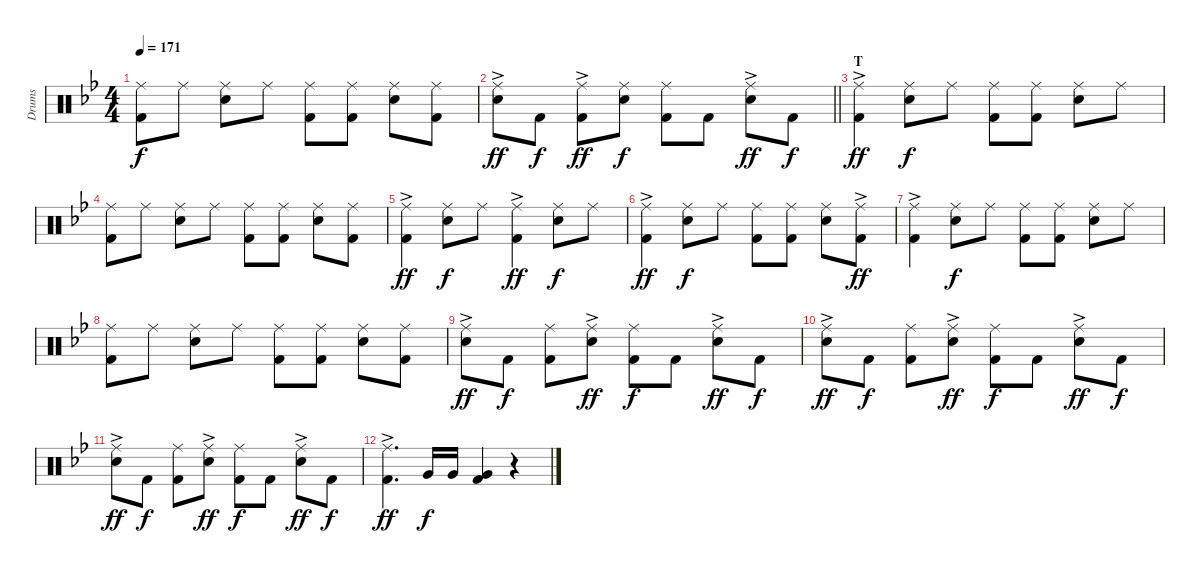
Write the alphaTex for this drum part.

\track ("Drums" "Drums") {instrument percussion}
\staff {score}
\articulation defaults
\ts (4 4)
\tempo 171
\clef neutral
\ks bb
("Ride (middle)" "Kick (hit) 2").8{dy f} "Ride (middle)".8 ("Ride (middle)" "Snare (hit) 2").8 "Ride (middle)".8 ("Ride (middle)" "Kick (hit) 2").8 ("Ride (middle)" "Kick (hit) 2").8 ("Ride (middle)" "Snare (hit) 2").8 ("Ride (middle)" "Kick (hit) 2").8 |
\barLineRight lightlight
("Ride (middle)"{ac} "Snare (hit) 2").8{dy ff} "Kick (hit) 2".8{dy f} ("Ride (middle)"{ac} "Kick (hit) 2").8{dy ff} ("Ride (middle)" "Snare (hit) 2").8{dy f} ("Ride (middle)" "Kick (hit) 2").8 "Kick (hit) 2".8 ("Ride (middle)"{ac} "Snare (hit) 2").8{dy ff} "Kick (hit) 2".8{dy f} |
\section ("" "T")
("Ride (middle)"{ac} "Kick (hit) 2").4{dy ff} ("Ride (middle)" "Snare (hit) 2").8{dy f} "Ride (middle)".8 ("Ride (middle)" "Kick (hit) 2").8 ("Ride (middle)" "Kick (hit) 2").8 ("Ride (middle)" "Snare (hit) 2").8 "Ride (middle)".8 |
("Ride (middle)" "Kick (hit) 2").8 "Ride (middle)".8 ("Ride (middle)" "Snare (hit) 2").8 "Ride (middle)".8 ("Ride (middle)" "Kick (hit) 2").8 ("Ride (middle)" "Kick (hit) 2").8 ("Ride (middle)" "Snare (hit) 2").8 ("Ride (middle)" "Kick (hit) 2").8 |
("Ride (middle)"{ac} "Kick (hit) 2").4{dy ff} ("Ride (middle)" "Snare (hit) 2").8{dy f} "Ride (middle)".8 ("Ride (middle)"{ac} "Kick (hit) 2").4{dy ff} ("Ride (middle)" "Snare (hit) 2").8{dy f} "Ride (middle)".8 |
("Ride (middle)"{ac} "Kick (hit) 2").4{dy ff} ("Ride (middle)" "Snare (hit) 2").8{dy f} "Ride (middle)".8 ("Ride (middle)" "Kick (hit) 2").8 ("Ride (middle)" "Kick (hit) 2").8 ("Ride (middle)" "Snare (hit) 2").8 ("Ride (middle)"{ac} "Kick (hit) 2").8{dy ff} |
("Ride (middle)"{ac} "Kick (hit) 2").4 ("Ride (middle)" "Snare (hit) 2").8{dy f} "Ride (middle)".8 ("Ride (middle)" "Kick (hit) 2").8 ("Ride (middle)" "Kick (hit) 2").8 ("Ride (middle)" "Snare (hit) 2").8 "Ride (middle)".8 |
("Ride (middle)" "Kick (hit) 2").8 "Ride (middle)".8 ("Ride (middle)" "Snare (hit) 2").8 "Ride (middle)".8 ("Ride (middle)" "Kick (hit) 2").8 ("Ride (middle)" "Kick (hit) 2").8 ("Ride (middle)" "Snare (hit) 2").8 ("Ride (middle)" "Kick (hit) 2").8 |
("Ride (middle)"{ac} "Snare (hit) 2").8{dy ff} "Kick (hit) 2".8{dy f} ("Ride (middle)" "Kick (hit) 2").8 ("Ride (middle)"{ac} "Snare (hit) 2").8{dy ff} ("Ride (middle)" "Kick (hit) 2").8{dy f} "Kick (hit) 2".8 ("Ride (middle)"{ac} "Snare (hit) 2").8{dy ff} "Kick (hit) 2".8{dy f} |
("Ride (middle)"{ac} "Snare (hit) 2").8{dy ff} "Kick (hit) 2".8{dy f} ("Ride (middle)" "Kick (hit) 2").8 ("Ride (middle)"{ac} "Snare (hit) 2").8{dy ff} ("Ride (middle)" "Kick (hit) 2").8{dy f} "Kick (hit) 2".8 ("Ride (middle)"{ac} "Snare (hit) 2").8{dy ff} "Kick (hit) 2".8{dy f} |
("Ride (middle)"{ac} "Snare (hit) 2").8{dy ff} "Kick (hit) 2".8{dy f} ("Ride (middle)" "Kick (hit) 2").8 ("Ride (middle)"{ac} "Snare (hit) 2").8{dy ff} ("Ride (middle)" "Kick (hit) 2").8{dy f} "Kick (hit) 2".8 ("Ride (middle)"{ac} "Snare (hit) 2").8{dy ff} "Kick (hit) 2".8{dy f} |
("Ride (middle)"{ac} "Kick (hit) 2").4{d dy ff} "Very Low Tom (hit)".16{dy f} "Very Low Tom (hit)".16 ("Very Low Tom (hit)" "Kick (hit) 2").4 r.4
